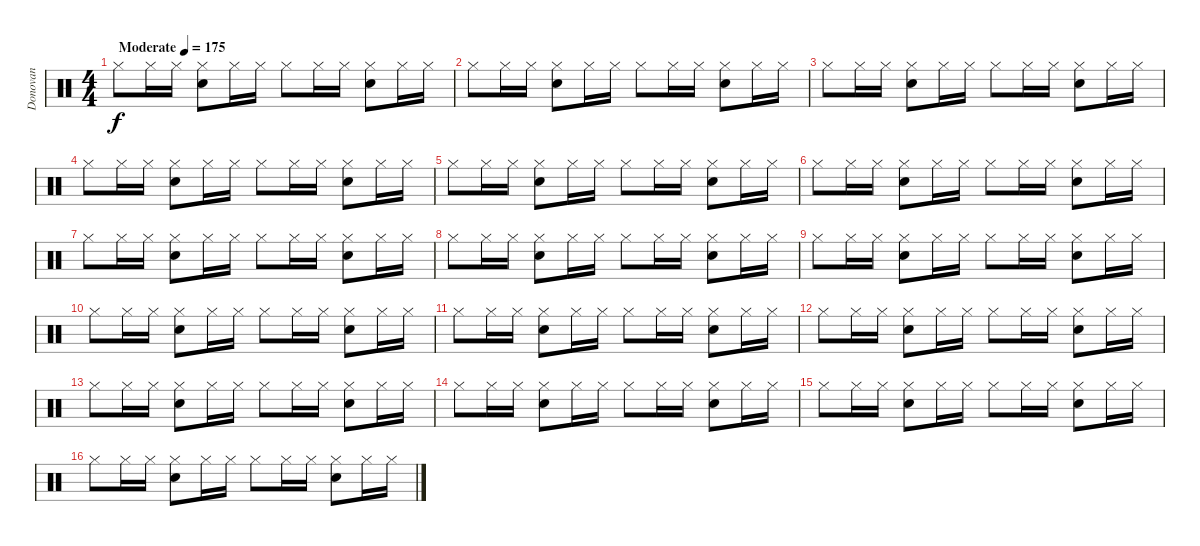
\track ("Donovan" "Donovan") {instrument percussion}
\staff {score}
\articulation defaults
\ts (4 4)
\tempo (175 "Moderate")
\clef neutral
\ks c "Hi-Hat (closed)".8{dy f} "Hi-Hat (closed)".16 "Hi-Hat (closed)".16
("Hi-Hat (closed)" "Snare (hit) 2").8 "Hi-Hat (closed)".16 "Hi-Hat (closed)".16 "Hi-Hat (closed)".8 "Hi-Hat (closed)".16 "Hi-Hat (closed)".16 ("Hi-Hat (closed)" "Snare (hit) 2").8 "Hi-Hat (closed)".16 "Hi-Hat (closed)".16 |
"Hi-Hat (closed)".8 "Hi-Hat (closed)".16 "Hi-Hat (closed)".16 ("Hi-Hat (closed)" "Snare (hit) 2").8 "Hi-Hat (closed)".16 "Hi-Hat (closed)".16 "Hi-Hat (closed)".8 "Hi-Hat (closed)".16 "Hi-Hat (closed)".16 ("Hi-Hat (closed)" "Snare (hit) 2").8 "Hi-Hat (closed)".16 "Hi-Hat (closed)".16 |
"Hi-Hat (closed)".8 "Hi-Hat (closed)".16 "Hi-Hat (closed)".16 ("Hi-Hat (closed)" "Snare (hit) 2").8 "Hi-Hat (closed)".16 "Hi-Hat (closed)".16 "Hi-Hat (closed)".8 "Hi-Hat (closed)".16 "Hi-Hat (closed)".16 ("Hi-Hat (closed)" "Snare (hit) 2").8 "Hi-Hat (closed)".16 "Hi-Hat (closed)".16 |
"Hi-Hat (closed)".8 "Hi-Hat (closed)".16 "Hi-Hat (closed)".16 ("Hi-Hat (closed)" "Snare (hit) 2").8 "Hi-Hat (closed)".16 "Hi-Hat (closed)".16 "Hi-Hat (closed)".8 "Hi-Hat (closed)".16 "Hi-Hat (closed)".16 ("Hi-Hat (closed)" "Snare (hit) 2").8 "Hi-Hat (closed)".16 "Hi-Hat (closed)".16 |
"Hi-Hat (closed)".8 "Hi-Hat (closed)".16 "Hi-Hat (closed)".16 ("Hi-Hat (closed)" "Snare (hit) 2").8 "Hi-Hat (closed)".16 "Hi-Hat (closed)".16 "Hi-Hat (closed)".8 "Hi-Hat (closed)".16 "Hi-Hat (closed)".16 ("Hi-Hat (closed)" "Snare (hit) 2").8 "Hi-Hat (closed)".16 "Hi-Hat (closed)".16 |
"Hi-Hat (closed)".8 "Hi-Hat (closed)".16 "Hi-Hat (closed)".16 ("Hi-Hat (closed)" "Snare (hit) 2").8 "Hi-Hat (closed)".16 "Hi-Hat (closed)".16 "Hi-Hat (closed)".8 "Hi-Hat (closed)".16 "Hi-Hat (closed)".16 ("Hi-Hat (closed)" "Snare (hit) 2").8 "Hi-Hat (closed)".16 "Hi-Hat (closed)".16 |
"Hi-Hat (closed)".8 "Hi-Hat (closed)".16 "Hi-Hat (closed)".16 ("Hi-Hat (closed)" "Snare (hit) 2").8 "Hi-Hat (closed)".16 "Hi-Hat (closed)".16 "Hi-Hat (closed)".8 "Hi-Hat (closed)".16 "Hi-Hat (closed)".16 ("Hi-Hat (closed)" "Snare (hit) 2").8 "Hi-Hat (closed)".16 "Hi-Hat (closed)".16 |
"Hi-Hat (closed)".8 "Hi-Hat (closed)".16 "Hi-Hat (closed)".16 ("Hi-Hat (closed)" "Snare (hit) 2").8 "Hi-Hat (closed)".16 "Hi-Hat (closed)".16 "Hi-Hat (closed)".8 "Hi-Hat (closed)".16 "Hi-Hat (closed)".16 ("Hi-Hat (closed)" "Snare (hit) 2").8 "Hi-Hat (closed)".16 "Hi-Hat (closed)".16 |
"Hi-Hat (closed)".8 "Hi-Hat (closed)".16 "Hi-Hat (closed)".16 ("Hi-Hat (closed)" "Snare (hit) 2").8 "Hi-Hat (closed)".16 "Hi-Hat (closed)".16 "Hi-Hat (closed)".8 "Hi-Hat (closed)".16 "Hi-Hat (closed)".16 ("Hi-Hat (closed)" "Snare (hit) 2").8 "Hi-Hat (closed)".16 "Hi-Hat (closed)".16 |
"Hi-Hat (closed)".8 "Hi-Hat (closed)".16 "Hi-Hat (closed)".16 ("Hi-Hat (closed)" "Snare (hit) 2").8 "Hi-Hat (closed)".16 "Hi-Hat (closed)".16 "Hi-Hat (closed)".8 "Hi-Hat (closed)".16 "Hi-Hat (closed)".16 ("Hi-Hat (closed)" "Snare (hit) 2").8 "Hi-Hat (closed)".16 "Hi-Hat (closed)".16 |
"Hi-Hat (closed)".8 "Hi-Hat (closed)".16 "Hi-Hat (closed)".16 ("Hi-Hat (closed)" "Snare (hit) 2").8 "Hi-Hat (closed)".16 "Hi-Hat (closed)".16 "Hi-Hat (closed)".8 "Hi-Hat (closed)".16 "Hi-Hat (closed)".16 ("Hi-Hat (closed)" "Snare (hit) 2").8 "Hi-Hat (closed)".16 "Hi-Hat (closed)".16 |
"Hi-Hat (closed)".8 "Hi-Hat (closed)".16 "Hi-Hat (closed)".16 ("Hi-Hat (closed)" "Snare (hit) 2").8 "Hi-Hat (closed)".16 "Hi-Hat (closed)".16 "Hi-Hat (closed)".8 "Hi-Hat (closed)".16 "Hi-Hat (closed)".16 ("Hi-Hat (closed)" "Snare (hit) 2").8 "Hi-Hat (closed)".16 "Hi-Hat (closed)".16 |
"Hi-Hat (closed)".8 "Hi-Hat (closed)".16 "Hi-Hat (closed)".16 ("Hi-Hat (closed)" "Snare (hit) 2").8 "Hi-Hat (closed)".16 "Hi-Hat (closed)".16 "Hi-Hat (closed)".8 "Hi-Hat (closed)".16 "Hi-Hat (closed)".16 ("Hi-Hat (closed)" "Snare (hit) 2").8 "Hi-Hat (closed)".16 "Hi-Hat (closed)".16 |
"Hi-Hat (closed)".8 "Hi-Hat (closed)".16 "Hi-Hat (closed)".16 ("Hi-Hat (closed)" "Snare (hit) 2").8 "Hi-Hat (closed)".16 "Hi-Hat (closed)".16 "Hi-Hat (closed)".8 "Hi-Hat (closed)".16 "Hi-Hat (closed)".16 ("Hi-Hat (closed)" "Snare (hit) 2").8 "Hi-Hat (closed)".16 "Hi-Hat (closed)".16 |
"Hi-Hat (closed)".8 "Hi-Hat (closed)".16 "Hi-Hat (closed)".16 ("Hi-Hat (closed)" "Snare (hit) 2").8 "Hi-Hat (closed)".16 "Hi-Hat (closed)".16 "Hi-Hat (closed)".8 "Hi-Hat (closed)".16 "Hi-Hat (closed)".16 ("Hi-Hat (closed)" "Snare (hit) 2").8 "Hi-Hat (closed)".16 "Hi-Hat (closed)".16 |
"Hi-Hat (closed)".8 "Hi-Hat (closed)".16 "Hi-Hat (closed)".16 ("Hi-Hat (closed)" "Snare (hit) 2").8 "Hi-Hat (closed)".16 "Hi-Hat (closed)".16 "Hi-Hat (closed)".8 "Hi-Hat (closed)".16 "Hi-Hat (closed)".16 ("Hi-Hat (closed)" "Snare (hit) 2").8 "Hi-Hat (closed)".16 "Hi-Hat (closed)".16
